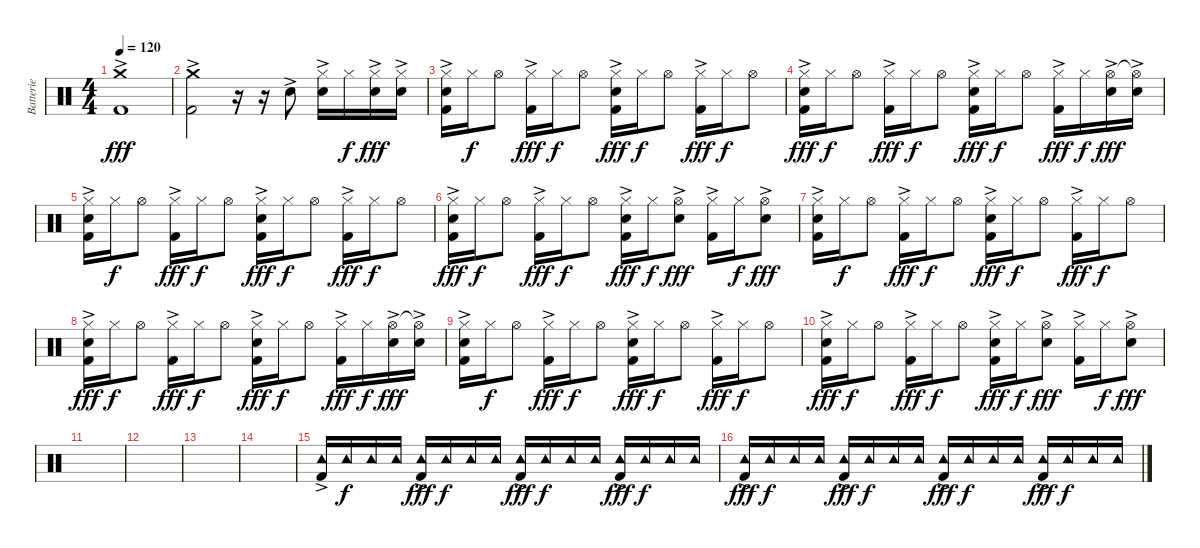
\track ("Batterie" "Batterie") {instrument percussion}
\staff {score}
\articulation defaults
\ts (4 4)
\tempo 120
\clef neutral
\ks c
("Crash medium (hit)" "Kick (hit) 2"{ac}).1{dy fff} |
("Crash medium (hit)" "Kick (hit) 2"{ac}).2 r.16 r.16 "Electric Snare (hit)"{ac}.8 ("Hi-Hat (closed)"{ac} "Electric Snare (hit)"{ac}).16 "Hi-Hat (closed)".16{dy f} ("Hi-Hat (closed)" "Electric Snare (hit)"{ac}).16{dy fff} ("Hi-Hat (closed)" "Electric Snare (hit)"{ac}).16 |
("Hi-Hat (closed)" "Electric Snare (hit)"{ac} "Kick (hit) 2"{ac}).16 "Hi-Hat (closed)".16{dy f} "Hi-Hat (open)".8 ("Hi-Hat (closed)" "Kick (hit) 2"{ac}).16{dy fff} "Hi-Hat (closed)".16{dy f} "Hi-Hat (open)".8 ("Hi-Hat (closed)" "Electric Snare (hit)"{ac} "Kick (hit) 2"{ac}).16{dy fff} "Hi-Hat (closed)".16{dy f} "Hi-Hat (open)".8 ("Hi-Hat (closed)" "Kick (hit) 2"{ac}).16{dy fff} "Hi-Hat (closed)".16{dy f} "Hi-Hat (open)".8 |
("Hi-Hat (closed)" "Electric Snare (hit)"{ac} "Kick (hit) 2"{ac}).16{dy fff} "Hi-Hat (closed)".16{dy f} "Hi-Hat (open)".8 ("Hi-Hat (closed)" "Kick (hit) 2"{ac}).16{dy fff} "Hi-Hat (closed)".16{dy f} "Hi-Hat (open)".8 ("Hi-Hat (closed)" "Electric Snare (hit)"{ac} "Kick (hit) 2"{ac}).16{dy fff} "Hi-Hat (closed)".16{dy f} "Hi-Hat (open)".8 ("Hi-Hat (closed)" "Kick (hit) 2"{ac}).16{dy fff} "Hi-Hat (closed)".16{dy f} ("Hi-Hat (open)" "Electric Snare (hit)"{ac}).16{dy fff} ("Hi-Hat (open)"{t} "Electric Snare (hit)"{ac}).16 |
("Hi-Hat (closed)" "Electric Snare (hit)"{ac} "Kick (hit) 2"{ac}).16 "Hi-Hat (closed)".16{dy f} "Hi-Hat (open)".8 ("Hi-Hat (closed)" "Kick (hit) 2"{ac}).16{dy fff} "Hi-Hat (closed)".16{dy f} "Hi-Hat (open)".8 ("Hi-Hat (closed)" "Electric Snare (hit)"{ac} "Kick (hit) 2"{ac}).16{dy fff} "Hi-Hat (closed)".16{dy f} "Hi-Hat (open)".8 ("Hi-Hat (closed)" "Kick (hit) 2"{ac}).16{dy fff} "Hi-Hat (closed)".16{dy f} "Hi-Hat (open)".8 |
("Hi-Hat (closed)" "Electric Snare (hit)"{ac} "Kick (hit) 2"{ac}).16{dy fff} "Hi-Hat (closed)".16{dy f} "Hi-Hat (open)".8 ("Hi-Hat (closed)" "Kick (hit) 2"{ac}).16{dy fff} "Hi-Hat (closed)".16{dy f} "Hi-Hat (open)".8 ("Hi-Hat (closed)" "Electric Snare (hit)"{ac} "Kick (hit) 2"{ac}).16{dy fff} "Hi-Hat (closed)".16{dy f} ("Hi-Hat (open)" "Electric Snare (hit)"{ac}).8{dy fff} ("Hi-Hat (closed)" "Kick (hit) 2"{ac}).16 "Hi-Hat (closed)".16{dy f} ("Hi-Hat (open)" "Electric Snare (hit)"{ac}).8{dy fff} |
("Hi-Hat (closed)" "Electric Snare (hit)"{ac} "Kick (hit) 2"{ac}).16 "Hi-Hat (closed)".16{dy f} "Hi-Hat (open)".8 ("Hi-Hat (closed)" "Kick (hit) 2"{ac}).16{dy fff} "Hi-Hat (closed)".16{dy f} "Hi-Hat (open)".8 ("Hi-Hat (closed)" "Electric Snare (hit)"{ac} "Kick (hit) 2"{ac}).16{dy fff} "Hi-Hat (closed)".16{dy f} "Hi-Hat (open)".8 ("Hi-Hat (closed)" "Kick (hit) 2"{ac}).16{dy fff} "Hi-Hat (closed)".16{dy f} "Hi-Hat (open)".8 |
("Hi-Hat (closed)" "Electric Snare (hit)"{ac} "Kick (hit) 2"{ac}).16{dy fff} "Hi-Hat (closed)".16{dy f} "Hi-Hat (open)".8 ("Hi-Hat (closed)" "Kick (hit) 2"{ac}).16{dy fff} "Hi-Hat (closed)".16{dy f} "Hi-Hat (open)".8 ("Hi-Hat (closed)" "Electric Snare (hit)"{ac} "Kick (hit) 2"{ac}).16{dy fff} "Hi-Hat (closed)".16{dy f} "Hi-Hat (open)".8 ("Hi-Hat (closed)" "Kick (hit) 2"{ac}).16{dy fff} "Hi-Hat (closed)".16{dy f} ("Hi-Hat (open)" "Electric Snare (hit)"{ac}).16{dy fff} ("Hi-Hat (open)"{t} "Electric Snare (hit)"{ac}).16 |
("Hi-Hat (closed)" "Electric Snare (hit)"{ac} "Kick (hit) 2"{ac}).16 "Hi-Hat (closed)".16{dy f} "Hi-Hat (open)".8 ("Hi-Hat (closed)" "Kick (hit) 2"{ac}).16{dy fff} "Hi-Hat (closed)".16{dy f} "Hi-Hat (open)".8 ("Hi-Hat (closed)" "Electric Snare (hit)"{ac} "Kick (hit) 2"{ac}).16{dy fff} "Hi-Hat (closed)".16{dy f} "Hi-Hat (open)".8 ("Hi-Hat (closed)" "Kick (hit) 2"{ac}).16{dy fff} "Hi-Hat (closed)".16{dy f} "Hi-Hat (open)".8 |
("Hi-Hat (closed)" "Electric Snare (hit)"{ac} "Kick (hit) 2"{ac}).16{dy fff} "Hi-Hat (closed)".16{dy f} "Hi-Hat (open)".8 ("Hi-Hat (closed)" "Kick (hit) 2"{ac}).16{dy fff} "Hi-Hat (closed)".16{dy f} "Hi-Hat (open)".8 ("Hi-Hat (closed)" "Electric Snare (hit)"{ac} "Kick (hit) 2"{ac}).16{dy fff} "Hi-Hat (closed)".16{dy f} ("Hi-Hat (open)" "Electric Snare (hit)"{ac}).8{dy fff} ("Hi-Hat (closed)" "Kick (hit) 2"{ac}).16 "Hi-Hat (closed)".16{dy f} ("Hi-Hat (open)" "Electric Snare (hit)"{ac}).8{dy fff} |
|
|
|
|
("Tambourine (hit)" "Kick (hit) 2"{ac}).16 "Tambourine (hit)".16{dy f} "Tambourine (hit)".16 "Tambourine (hit)".16 ("Tambourine (hit)" "Kick (hit) 2"{ac}).16{dy fff} "Tambourine (hit)".16{dy f} "Tambourine (hit)".16 "Tambourine (hit)".16 ("Tambourine (hit)" "Kick (hit) 2"{ac}).16{dy fff} "Tambourine (hit)".16{dy f} "Tambourine (hit)".16 "Tambourine (hit)".16 ("Tambourine (hit)" "Kick (hit) 2"{ac}).16{dy fff} "Tambourine (hit)".16{dy f} "Tambourine (hit)".16 "Tambourine (hit)".16 |
("Tambourine (hit)" "Kick (hit) 2"{ac}).16{dy fff} "Tambourine (hit)".16{dy f} "Tambourine (hit)".16 "Tambourine (hit)".16 ("Tambourine (hit)" "Kick (hit) 2"{ac}).16{dy fff} "Tambourine (hit)".16{dy f} "Tambourine (hit)".16 "Tambourine (hit)".16 ("Tambourine (hit)" "Kick (hit) 2"{ac}).16{dy fff} "Tambourine (hit)".16{dy f} "Tambourine (hit)".16 "Tambourine (hit)".16 ("Tambourine (hit)" "Kick (hit) 2"{ac}).16{dy fff} "Tambourine (hit)".16{dy f} "Tambourine (hit)".16 "Tambourine (hit)".16
